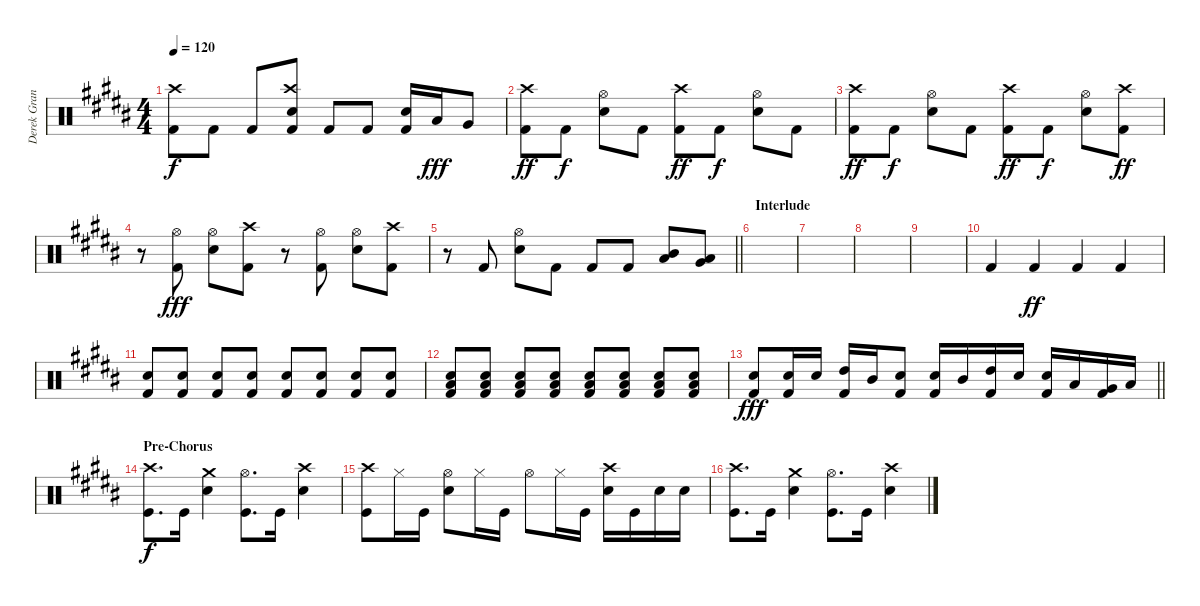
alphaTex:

\track ("Derek Grant - Drums" "Derek Gran") {instrument percussion}
\staff {score}
\articulation defaults
\ts (4 4)
\tempo 120
\clef neutral
\ks b
("Kick (hit) 2" "Crash high (hit)").8{dy f} "Kick (hit) 2".8 "Kick (hit) 2".8 ("Snare (hit) 2" "Kick (hit) 2" "Crash high (hit)").8 "Kick (hit) 2".8 "Kick (hit) 2".8 ("Snare (hit) 2" "Kick (hit) 2").16 "Low Tom (hit)".16{dy fff} "Very Low Tom (hit)".8 |
("Kick (hit) 2" "Crash high (hit)").8{dy ff} "Kick (hit) 2".8{dy f} ("Snare (hit) 2" "Hi-Hat (open)").8 "Kick (hit) 2".8 ("Kick (hit) 2" "Crash high (hit)").8{dy ff} "Kick (hit) 2".8{dy f} ("Snare (hit) 2" "Hi-Hat (open)").8 "Kick (hit) 2".8 |
("Kick (hit) 2" "Crash high (hit)").8{dy ff} "Kick (hit) 2".8{dy f} ("Snare (hit) 2" "Hi-Hat (open)").8 "Kick (hit) 2".8 ("Kick (hit) 2" "Crash high (hit)").8{dy ff} "Kick (hit) 2".8{dy f} ("Snare (hit) 2" "Hi-Hat (open)").8 ("Kick (hit) 2" "Crash high (hit)").8{dy ff} |
r.8 ("Kick (hit) 2" "Hi-Hat (open)").8{dy fff} ("Snare (hit) 2" "Hi-Hat (open)").8 ("Crash high (hit)" "Kick (hit) 2").8 r.8 ("Kick (hit) 2" "Hi-Hat (open)").8 ("Snare (hit) 2" "Hi-Hat (open)").8 ("Crash high (hit)" "Kick (hit) 2").8 |
\barLineRight lightlight
r.8 "Kick (hit) 2".8 ("Snare (hit) 2" "Hi-Hat (open)").8 "Kick (hit) 2".8 "Kick (hit) 2".8 "Kick (hit) 2".8 ("Low Tom (hit)" "Mid Tom (hit)").8 ("Very Low Tom (hit)" "Low Tom (hit)").8 |
\section ("" "Interlude")
|
|
|
|
"Kick (hit) 2".4 "Kick (hit) 2".4{dy ff} "Kick (hit) 2".4 "Kick (hit) 2".4 |
("Kick (hit) 2" "Snare (hit) 2").8 ("Kick (hit) 2" "Snare (hit) 2").8 ("Kick (hit) 2" "Snare (hit) 2").8 ("Kick (hit) 2" "Snare (hit) 2").8 ("Kick (hit) 2" "Snare (hit) 2").8 ("Kick (hit) 2" "Snare (hit) 2").8 ("Kick (hit) 2" "Snare (hit) 2").8 ("Kick (hit) 2" "Snare (hit) 2").8 |
("Kick (hit) 2" "Low Floor Tom (hit)" "Snare (hit) 2").8 ("Kick (hit) 2" "Low Floor Tom (hit)" "Snare (hit) 2").8 ("Kick (hit) 2" "Low Floor Tom (hit)" "Snare (hit) 2").8 ("Kick (hit) 2" "Low Floor Tom (hit)" "Snare (hit) 2").8 ("Kick (hit) 2" "Low Floor Tom (hit)" "Snare (hit) 2").8 ("Kick (hit) 2" "Low Floor Tom (hit)" "Snare (hit) 2").8 ("Kick (hit) 2" "Low Floor Tom (hit)" "Snare (hit) 2").8 ("Kick (hit) 2" "Low Floor Tom (hit)" "Snare (hit) 2").8 |
\barLineRight lightlight
("Kick (hit) 2" "Snare (hit) 2").8{dy fff} ("Kick (hit) 2" "Snare (hit) 2").16 "Snare (hit) 2".16 ("Kick (hit) 2" "High Tom (hit)").16 "Mid Tom (hit)".16 ("Kick (hit) 2" "Snare (hit) 2").8 ("Kick (hit) 2" "Snare (hit) 2").16 "Mid Tom (hit)".16 ("Kick (hit) 2" "High Tom (hit)").16 "Snare (hit) 2".16 ("Kick (hit) 2" "Snare (hit) 2").16 "Low Tom (hit)".16 ("Kick (hit) 2" "Very Low Tom (hit)").16 "Low Floor Tom (hit)".16 |
\section ("" "Pre-Chorus")
("Kick (hit)" "Crash high (hit)").8{d dy f} "Kick (hit)".16 ("Snare (hit) 2" "Crash medium (hit)").4 ("Kick (hit)" "Hi-Hat (open)").8{d} "Kick (hit)".16 ("Snare (hit) 2" "Crash high (hit)").4 |
("Kick (hit)" "Crash high (hit)").8 "Hi-Hat (closed)".16 "Kick (hit)".16 ("Snare (hit) 2" "Hi-Hat (open)").8 "Hi-Hat (closed)".16 "Kick (hit)".16 "Hi-Hat (open)".8 "Hi-Hat (closed)".16 "Kick (hit)".16 ("Snare (hit) 2" "Crash high (hit)").16 "Kick (hit)".16 "Snare (hit) 2".16 "Snare (hit) 2".16 |
("Kick (hit)" "Crash high (hit)").8{d} "Kick (hit)".16 ("Snare (hit) 2" "Crash medium (hit)").4 ("Kick (hit)" "Hi-Hat (open)").8{d} "Kick (hit)".16 ("Snare (hit) 2" "Crash high (hit)").4
